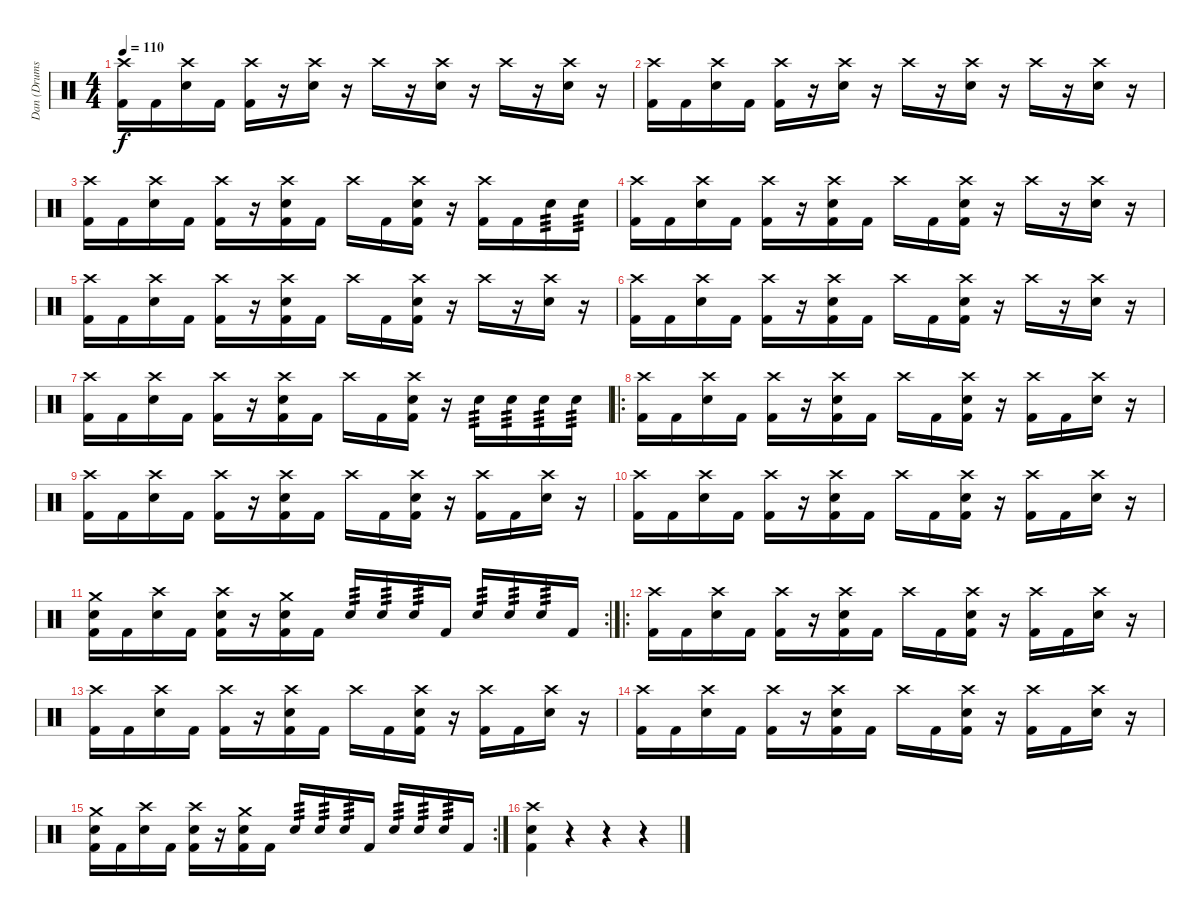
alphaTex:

\track ("Dan (Drums)" "Dan (Drums") {instrument percussion}
\staff {score}
\articulation defaults
\ts (4 4)
\tempo 110
\clef neutral
\ks c
("Crash high (hit)" "Kick (hit) 2").16{dy f} "Kick (hit) 2".16 ("Crash high (hit)" "Electric Snare (hit)").16 "Kick (hit) 2".16 ("Crash high (hit)" "Kick (hit) 2").16 r.16 ("Crash high (hit)" "Electric Snare (hit)").16 r.16 "Crash high (hit)".16 r.16 ("Crash high (hit)" "Electric Snare (hit)").16 r.16 "Crash high (hit)".16 r.16 ("Crash high (hit)" "Electric Snare (hit)").16 r.16 |
("Crash high (hit)" "Kick (hit) 2").16 "Kick (hit) 2".16 ("Crash high (hit)" "Electric Snare (hit)").16 "Kick (hit) 2".16 ("Crash high (hit)" "Kick (hit) 2").16 r.16 ("Crash high (hit)" "Electric Snare (hit)").16 r.16 "Crash high (hit)".16 r.16 ("Crash high (hit)" "Electric Snare (hit)").16 r.16 "Crash high (hit)".16 r.16 ("Crash high (hit)" "Electric Snare (hit)").16 r.16 |
("Crash high (hit)" "Kick (hit) 2").16 "Kick (hit) 2".16 ("Crash high (hit)" "Electric Snare (hit)").16 "Kick (hit) 2".16 ("Crash high (hit)" "Kick (hit) 2").16 r.16 ("Crash high (hit)" "Electric Snare (hit)" "Kick (hit) 2").16 "Kick (hit) 2".16 "Crash high (hit)".16 "Kick (hit) 2".16 ("Crash high (hit)" "Electric Snare (hit)" "Kick (hit) 2").16 r.16 ("Crash high (hit)" "Kick (hit) 2").16 "Kick (hit) 2".16 "Electric Snare (hit)".16{tp 3} "Electric Snare (hit)".16{tp 3} |
("Crash high (hit)" "Kick (hit) 2").16 "Kick (hit) 2".16 ("Crash high (hit)" "Electric Snare (hit)").16 "Kick (hit) 2".16 ("Crash high (hit)" "Kick (hit) 2").16 r.16 ("Crash high (hit)" "Electric Snare (hit)" "Kick (hit) 2").16 "Kick (hit) 2".16 "Crash high (hit)".16 "Kick (hit) 2".16 ("Crash high (hit)" "Electric Snare (hit)" "Kick (hit) 2").16 r.16 "Crash high (hit)".16 r.16 ("Crash high (hit)" "Electric Snare (hit)").16 r.16 |
("Crash high (hit)" "Kick (hit) 2").16 "Kick (hit) 2".16 ("Crash high (hit)" "Electric Snare (hit)").16 "Kick (hit) 2".16 ("Crash high (hit)" "Kick (hit) 2").16 r.16 ("Crash high (hit)" "Electric Snare (hit)" "Kick (hit) 2").16 "Kick (hit) 2".16 "Crash high (hit)".16 "Kick (hit) 2".16 ("Crash high (hit)" "Electric Snare (hit)" "Kick (hit) 2").16 r.16 "Crash high (hit)".16 r.16 ("Crash high (hit)" "Electric Snare (hit)").16 r.16 |
("Crash high (hit)" "Kick (hit) 2").16 "Kick (hit) 2".16 ("Crash high (hit)" "Electric Snare (hit)").16 "Kick (hit) 2".16 ("Crash high (hit)" "Kick (hit) 2").16 r.16 ("Crash high (hit)" "Electric Snare (hit)" "Kick (hit) 2").16 "Kick (hit) 2".16 "Crash high (hit)".16 "Kick (hit) 2".16 ("Crash high (hit)" "Electric Snare (hit)" "Kick (hit) 2").16 r.16 "Crash high (hit)".16 r.16 ("Crash high (hit)" "Electric Snare (hit)").16 r.16 |
("Crash high (hit)" "Kick (hit) 2").16 "Kick (hit) 2".16 ("Crash high (hit)" "Electric Snare (hit)").16 "Kick (hit) 2".16 ("Crash high (hit)" "Kick (hit) 2").16 r.16 ("Crash high (hit)" "Electric Snare (hit)" "Kick (hit) 2").16 "Kick (hit) 2".16 "Crash high (hit)".16 "Kick (hit) 2".16 ("Crash high (hit)" "Electric Snare (hit)" "Kick (hit) 2").16 r.16 "Electric Snare (hit)".16{tp 3} "Electric Snare (hit)".16{tp 3} "Electric Snare (hit)".16{tp 3} "Electric Snare (hit)".16{tp 3} |
\ro
("Crash high (hit)" "Kick (hit) 2").16 "Kick (hit) 2".16 ("Crash high (hit)" "Electric Snare (hit)").16 "Kick (hit) 2".16 ("Crash high (hit)" "Kick (hit) 2").16 r.16 ("Crash high (hit)" "Electric Snare (hit)" "Kick (hit) 2").16 "Kick (hit) 2".16 "Crash high (hit)".16 "Kick (hit) 2".16 ("Crash high (hit)" "Electric Snare (hit)" "Kick (hit) 2").16 r.16 ("Crash high (hit)" "Kick (hit) 2").16 "Kick (hit) 2".16 ("Crash high (hit)" "Electric Snare (hit)").16 r.16 |
("Crash high (hit)" "Kick (hit) 2").16 "Kick (hit) 2".16 ("Crash high (hit)" "Electric Snare (hit)").16 "Kick (hit) 2".16 ("Crash high (hit)" "Kick (hit) 2").16 r.16 ("Crash high (hit)" "Electric Snare (hit)" "Kick (hit) 2").16 "Kick (hit) 2".16 "Crash high (hit)".16 "Kick (hit) 2".16 ("Crash high (hit)" "Electric Snare (hit)" "Kick (hit) 2").16 r.16 ("Crash high (hit)" "Kick (hit) 2").16 "Kick (hit) 2".16 ("Crash high (hit)" "Electric Snare (hit)").16 r.16 |
("Crash high (hit)" "Kick (hit) 2").16 "Kick (hit) 2".16 ("Crash high (hit)" "Electric Snare (hit)").16 "Kick (hit) 2".16 ("Crash high (hit)" "Kick (hit) 2").16 r.16 ("Crash high (hit)" "Electric Snare (hit)" "Kick (hit) 2").16 "Kick (hit) 2".16 "Crash high (hit)".16 "Kick (hit) 2".16 ("Crash high (hit)" "Electric Snare (hit)" "Kick (hit) 2").16 r.16 ("Crash high (hit)" "Kick (hit) 2").16 "Kick (hit) 2".16 ("Crash high (hit)" "Electric Snare (hit)").16 r.16 |
\rc 2
("Crash medium (hit)" "Electric Snare (hit)" "Kick (hit) 2").16 "Kick (hit) 2".16 ("Crash high (hit)" "Electric Snare (hit)").16 "Kick (hit) 2".16 ("Crash high (hit)" "Electric Snare (hit)" "Kick (hit) 2").16 r.16 ("Crash medium (hit)" "Electric Snare (hit)" "Kick (hit) 2").16 "Kick (hit) 2".16 "Electric Snare (hit)".16{tp 3} "Electric Snare (hit)".16{tp 3} "Electric Snare (hit)".16{tp 3} "Kick (hit) 2".16 "Electric Snare (hit)".16{tp 3} "Electric Snare (hit)".16{tp 3} "Electric Snare (hit)".16{tp 3} "Kick (hit) 2".16 |
\ro
("Crash high (hit)" "Kick (hit) 2").16 "Kick (hit) 2".16 ("Crash high (hit)" "Electric Snare (hit)").16 "Kick (hit) 2".16 ("Crash high (hit)" "Kick (hit) 2").16 r.16 ("Crash high (hit)" "Electric Snare (hit)" "Kick (hit) 2").16 "Kick (hit) 2".16 "Crash high (hit)".16 "Kick (hit) 2".16 ("Crash high (hit)" "Electric Snare (hit)" "Kick (hit) 2").16 r.16 ("Crash high (hit)" "Kick (hit) 2").16 "Kick (hit) 2".16 ("Crash high (hit)" "Electric Snare (hit)").16 r.16 |
("Crash high (hit)" "Kick (hit) 2").16 "Kick (hit) 2".16 ("Crash high (hit)" "Electric Snare (hit)").16 "Kick (hit) 2".16 ("Crash high (hit)" "Kick (hit) 2").16 r.16 ("Crash high (hit)" "Electric Snare (hit)" "Kick (hit) 2").16 "Kick (hit) 2".16 "Crash high (hit)".16 "Kick (hit) 2".16 ("Crash high (hit)" "Electric Snare (hit)" "Kick (hit) 2").16 r.16 ("Crash high (hit)" "Kick (hit) 2").16 "Kick (hit) 2".16 ("Crash high (hit)" "Electric Snare (hit)").16 r.16 |
("Crash high (hit)" "Kick (hit) 2").16 "Kick (hit) 2".16 ("Crash high (hit)" "Electric Snare (hit)").16 "Kick (hit) 2".16 ("Crash high (hit)" "Kick (hit) 2").16 r.16 ("Crash high (hit)" "Electric Snare (hit)" "Kick (hit) 2").16 "Kick (hit) 2".16 "Crash high (hit)".16 "Kick (hit) 2".16 ("Crash high (hit)" "Electric Snare (hit)" "Kick (hit) 2").16 r.16 ("Crash high (hit)" "Kick (hit) 2").16 "Kick (hit) 2".16 ("Crash high (hit)" "Electric Snare (hit)").16 r.16 |
\rc 2
("Crash medium (hit)" "Electric Snare (hit)" "Kick (hit) 2").16 "Kick (hit) 2".16 ("Crash high (hit)" "Electric Snare (hit)").16 "Kick (hit) 2".16 ("Crash high (hit)" "Electric Snare (hit)" "Kick (hit) 2").16 r.16 ("Crash medium (hit)" "Electric Snare (hit)" "Kick (hit) 2").16 "Kick (hit) 2".16 "Electric Snare (hit)".16{tp 3} "Electric Snare (hit)".16{tp 3} "Electric Snare (hit)".16{tp 3} "Kick (hit) 2".16 "Electric Snare (hit)".16{tp 3} "Electric Snare (hit)".16{tp 3} "Electric Snare (hit)".16{tp 3} "Kick (hit) 2".16 |
("Crash high (hit)" "Electric Snare (hit)" "Kick (hit) 2").4 r.4 r.4 r.4
